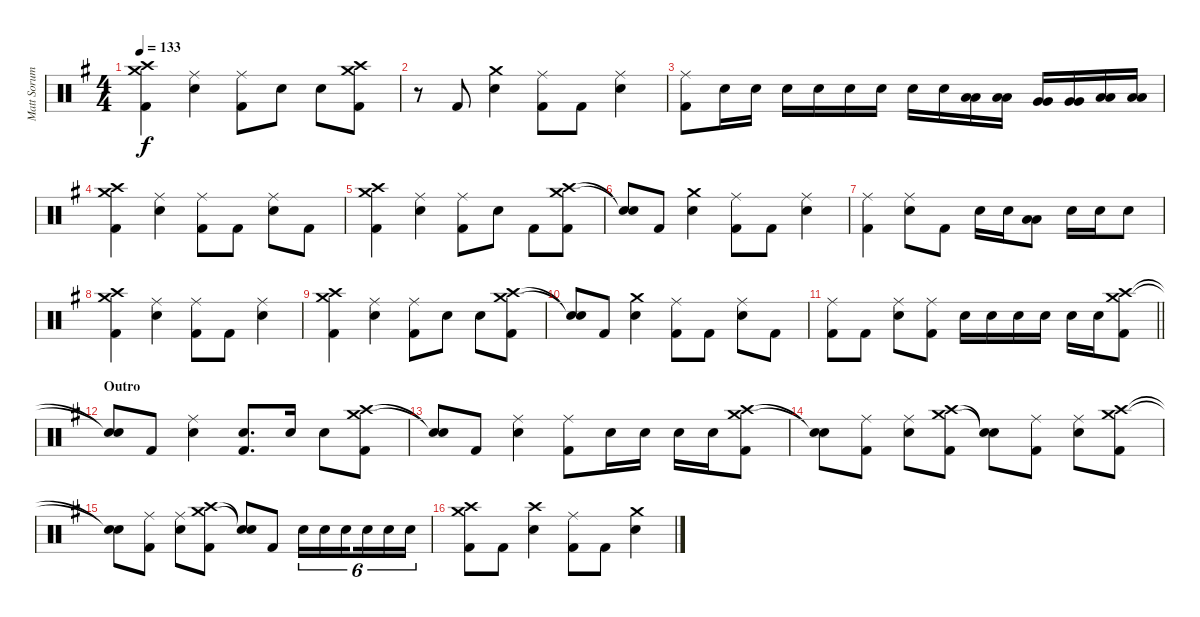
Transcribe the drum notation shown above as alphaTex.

\track ("Matt Sorum - Drums" "Matt Sorum") {instrument percussion}
\staff {score}
\articulation defaults
\ts (4 4)
\tempo 133
\clef neutral
\ks g
("Crash medium (hit)" "Crash high (hit)" "Kick (hit) 2").4{dy f} ("Ride (middle)" "Snare (hit) 2").4 ("Ride (middle)" "Kick (hit) 2").8 "Snare (hit) 2".8 "Snare (hit) 2".8 ("Crash medium (hit)" "Crash high (hit)" "Kick (hit) 2").8 |
r.8 "Kick (hit) 2".8 ("Crash medium (hit)" "Snare (hit) 2").4 ("Ride (middle)" "Kick (hit) 2").8 "Kick (hit) 2".8 ("Ride (middle)" "Snare (hit) 2").4 |
("Ride (middle)" "Kick (hit) 2").8 "Snare (hit) 2".16 "Snare (hit) 2".16 "Snare (hit) 2".16 "Snare (hit) 2".16 "Snare (hit) 2".16 "Snare (hit) 2".16 "Snare (hit) 2".16 "Snare (hit) 2".16 ("Low Tom (hit)" "Low Tom (hit)").16 ("Low Tom (hit)" "Low Tom (hit)").16 ("Very Low Tom (hit)" "Very Low Tom (hit)").16 ("Very Low Tom (hit)" "Very Low Tom (hit)").16 ("Low Floor Tom (hit)" "Low Floor Tom (hit)").16 ("Low Floor Tom (hit)" "Low Floor Tom (hit)").16 |
("Crash medium (hit)" "Crash high (hit)" "Kick (hit) 2").4 ("Ride (middle)" "Snare (hit) 2").4 ("Ride (middle)" "Kick (hit) 2").8 "Kick (hit) 2".8 ("Ride (middle)" "Snare (hit) 2").8 "Kick (hit) 2".8 |
("Crash medium (hit)" "Crash high (hit)" "Kick (hit) 2").4 ("Ride (middle)" "Snare (hit) 2").4 ("Ride (middle)" "Kick (hit) 2").8 "Snare (hit) 2".8 "Kick (hit) 2".8 ("Crash medium (hit)" "Crash high (hit)" "Kick (hit) 2").8 |
("Snare (hit)"{t} "Snare (hit)"{t}).8 "Kick (hit) 2".8 ("Crash medium (hit)" "Snare (hit) 2").4 ("Ride (middle)" "Kick (hit) 2").8 "Kick (hit) 2".8 ("Ride (middle)" "Snare (hit) 2").4 |
("Ride (middle)" "Kick (hit) 2").4 ("Ride (middle)" "Snare (hit) 2").8 "Kick (hit) 2".8 "Snare (hit) 2".16 "Snare (hit) 2".16 ("Low Tom (hit)" "Low Tom (hit)").8 "Snare (hit) 2".16 "Snare (hit) 2".16 "Snare (hit) 2".8 |
("Crash medium (hit)" "Crash high (hit)" "Kick (hit) 2").4 ("Ride (middle)" "Snare (hit) 2").4 ("Ride (middle)" "Kick (hit) 2").8 "Kick (hit) 2".8 ("Ride (middle)" "Snare (hit) 2").4 |
("Crash medium (hit)" "Crash high (hit)" "Kick (hit) 2").4 ("Ride (middle)" "Snare (hit) 2").4 ("Ride (middle)" "Kick (hit) 2").8 "Snare (hit) 2".8 "Snare (hit) 2".8 ("Crash medium (hit)" "Crash high (hit)" "Kick (hit) 2").8 |
("Snare (hit)"{t} "Snare (hit)"{t}).8 "Kick (hit) 2".8 ("Crash medium (hit)" "Snare (hit) 2").4 ("Ride (middle)" "Kick (hit) 2").8 "Kick (hit) 2".8 ("Ride (middle)" "Snare (hit) 2").8 "Kick (hit) 2".8 |
\barLineRight lightlight
("Ride (middle)" "Kick (hit) 2").8 "Kick (hit) 2".8 ("Ride (middle)" "Snare (hit) 2").8 ("Ride (middle)" "Kick (hit) 2").8 "Snare (hit) 2".16 "Snare (hit) 2".16 "Snare (hit) 2".16 "Snare (hit) 2".16 "Snare (hit) 2".16 "Snare (hit) 2".16 ("Crash medium (hit)" "Crash high (hit)" "Kick (hit) 2").8 |
\section ("" "Outro")
("Snare (hit)"{t} "Snare (hit)"{t}).8 "Kick (hit) 2".8 ("Ride (middle)" "Snare (hit) 2").4 ("Snare (hit) 2" "Kick (hit) 2").8{d} "Snare (hit) 2".16 "Snare (hit) 2".8 ("Crash medium (hit)" "Crash high (hit)" "Kick (hit) 2").8 |
("Snare (hit)"{t} "Snare (hit)"{t}).8 "Kick (hit) 2".8 ("Ride (middle)" "Snare (hit) 2").4 ("Ride (middle)" "Kick (hit) 2").8 "Snare (hit) 2".16 "Snare (hit) 2".16 "Snare (hit) 2".16 "Snare (hit) 2".16 ("Crash medium (hit)" "Crash high (hit)" "Kick (hit) 2").8 |
("Snare (hit)"{t} "Snare (hit)"{t}).8 ("Ride (middle)" "Kick (hit) 2").8 ("Ride (middle)" "Snare (hit) 2").8 ("Crash medium (hit)" "Crash high (hit)" "Kick (hit) 2").8 ("Snare (hit)"{t} "Snare (hit)"{t}).8 ("Ride (middle)" "Kick (hit) 2").8 ("Ride (middle)" "Snare (hit) 2").8 ("Crash medium (hit)" "Crash high (hit)" "Kick (hit) 2").8 |
("Snare (hit)"{t} "Snare (hit)"{t}).8 ("Ride (middle)" "Kick (hit) 2").8 ("Ride (middle)" "Snare (hit) 2").8 ("Crash medium (hit)" "Crash high (hit)" "Kick (hit) 2").8 ("Snare (hit)"{t} "Snare (hit)"{t}).8 "Kick (hit) 2".8 "Snare (hit) 2".16{tu (6 4)} "Snare (hit) 2".16{tu (6 4)} "Snare (hit) 2".16{tu (6 4) beam splitsecondary} "Snare (hit) 2".16{tu (6 4)} "Snare (hit) 2".16{tu (6 4)} "Snare (hit) 2".16{tu (6 4)} |
("Crash medium (hit)" "Crash high (hit)" "Kick (hit) 2").8 "Kick (hit) 2".8 ("Crash high (hit)" "Snare (hit) 2").4 ("Ride (middle)" "Kick (hit) 2").8 "Kick (hit) 2".8 ("Crash medium (hit)" "Snare (hit) 2").4
